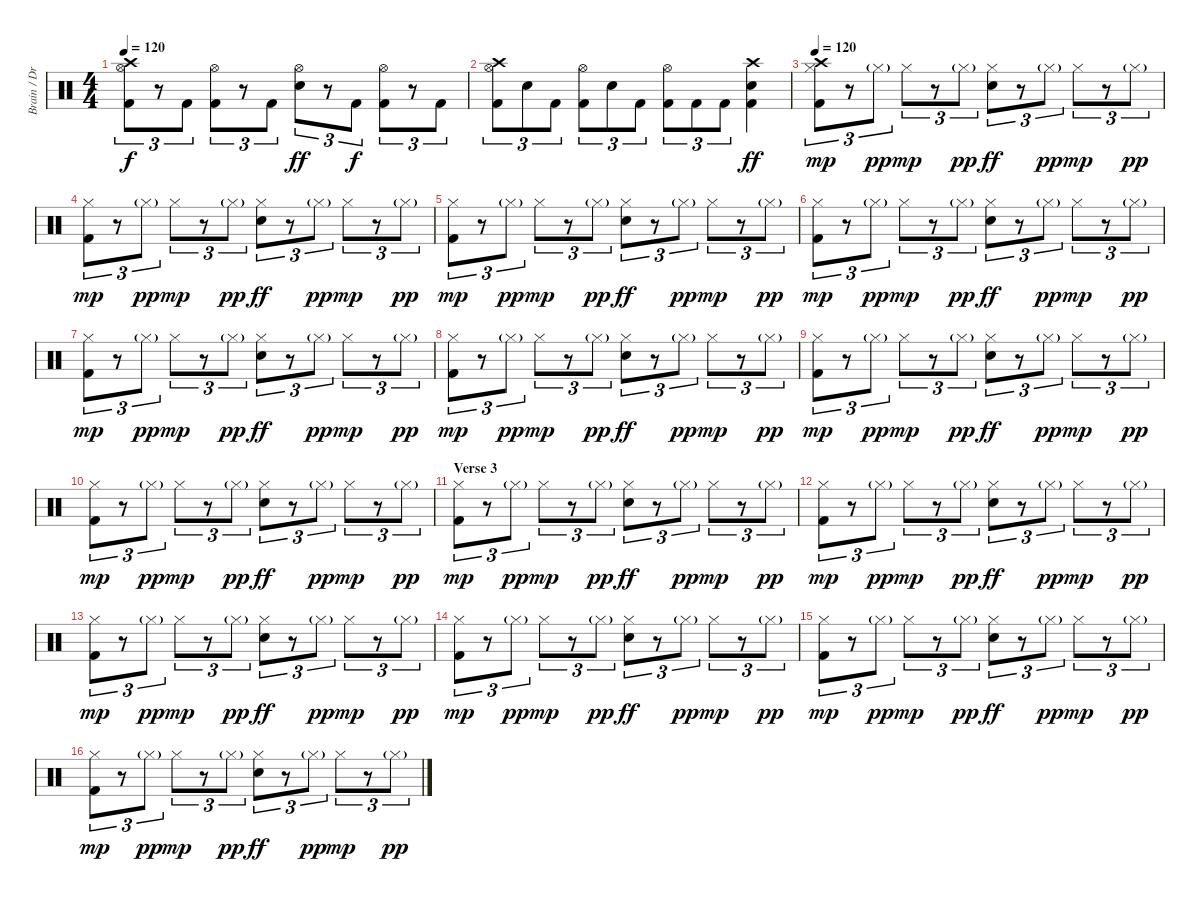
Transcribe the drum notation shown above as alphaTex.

\track ("Brain / Drums" "Brain / Dr") {instrument percussion}
\staff {score}
\articulation defaults
\ts (4 4)
\tempo 120
\clef neutral
\ks c
("Crash high (hit)" "Hi-Hat (open)" "Kick (hit) 2").8{tu (3 2) dy f} r.8{tu (3 2)} "Kick (hit) 2".8{tu (3 2)} ("Hi-Hat (open)" "Kick (hit) 2").8{tu (3 2)} r.8{tu (3 2)} "Kick (hit) 2".8{tu (3 2)} ("Hi-Hat (open)" "Electric Snare (hit)").8{tu (3 2) dy ff} r.8{tu (3 2)} "Kick (hit) 2".8{tu (3 2) dy f} ("Hi-Hat (open)" "Kick (hit) 2").8{tu (3 2)} r.8{tu (3 2)} "Kick (hit) 2".8{tu (3 2)} |
("Crash high (hit)" "Hi-Hat (open)" "Kick (hit) 2").8{tu (3 2)} "Electric Snare (hit)".8{tu (3 2)} "Kick (hit) 2".8{tu (3 2)} ("Hi-Hat (open)" "Kick (hit) 2").8{tu (3 2)} "Electric Snare (hit)".8{tu (3 2)} "Kick (hit) 2".8{tu (3 2)} ("Hi-Hat (open)" "Kick (hit) 2").8{tu (3 2)} "Kick (hit) 2".8{tu (3 2)} "Kick (hit) 2".8{tu (3 2)} ("Crash high (hit)" "Electric Snare (hit)" "Kick (hit) 2").4{dy ff} |
\tempo 120
("Crash high (hit)" "Hi-Hat (closed)" "Kick (hit) 2").8{tu (3 2) dy mp} r.8{tu (3 2)} "Hi-Hat (closed)"{g}.8{tu (3 2) dy pp} "Hi-Hat (closed)".8{tu (3 2) dy mp} r.8{tu (3 2)} "Hi-Hat (closed)"{g}.8{tu (3 2) dy pp} ("Hi-Hat (closed)" "Electric Snare (hit)").8{tu (3 2) dy ff} r.8{tu (3 2)} "Hi-Hat (closed)"{g}.8{tu (3 2) dy pp} "Hi-Hat (closed)".8{tu (3 2) dy mp} r.8{tu (3 2)} "Hi-Hat (closed)"{g}.8{tu (3 2) dy pp} |
("Hi-Hat (closed)" "Kick (hit) 2").8{tu (3 2) dy mp} r.8{tu (3 2)} "Hi-Hat (closed)"{g}.8{tu (3 2) dy pp} "Hi-Hat (closed)".8{tu (3 2) dy mp} r.8{tu (3 2)} "Hi-Hat (closed)"{g}.8{tu (3 2) dy pp} ("Hi-Hat (closed)" "Electric Snare (hit)").8{tu (3 2) dy ff} r.8{tu (3 2)} "Hi-Hat (closed)"{g}.8{tu (3 2) dy pp} "Hi-Hat (closed)".8{tu (3 2) dy mp} r.8{tu (3 2)} "Hi-Hat (closed)"{g}.8{tu (3 2) dy pp} |
("Hi-Hat (closed)" "Kick (hit) 2").8{tu (3 2) dy mp} r.8{tu (3 2)} "Hi-Hat (closed)"{g}.8{tu (3 2) dy pp} "Hi-Hat (closed)".8{tu (3 2) dy mp} r.8{tu (3 2)} "Hi-Hat (closed)"{g}.8{tu (3 2) dy pp} ("Hi-Hat (closed)" "Electric Snare (hit)").8{tu (3 2) dy ff} r.8{tu (3 2)} "Hi-Hat (closed)"{g}.8{tu (3 2) dy pp} "Hi-Hat (closed)".8{tu (3 2) dy mp} r.8{tu (3 2)} "Hi-Hat (closed)"{g}.8{tu (3 2) dy pp} |
("Hi-Hat (closed)" "Kick (hit) 2").8{tu (3 2) dy mp} r.8{tu (3 2)} "Hi-Hat (closed)"{g}.8{tu (3 2) dy pp} "Hi-Hat (closed)".8{tu (3 2) dy mp} r.8{tu (3 2)} "Hi-Hat (closed)"{g}.8{tu (3 2) dy pp} ("Hi-Hat (closed)" "Electric Snare (hit)").8{tu (3 2) dy ff} r.8{tu (3 2)} "Hi-Hat (closed)"{g}.8{tu (3 2) dy pp} "Hi-Hat (closed)".8{tu (3 2) dy mp} r.8{tu (3 2)} "Hi-Hat (closed)"{g}.8{tu (3 2) dy pp} |
("Hi-Hat (closed)" "Kick (hit) 2").8{tu (3 2) dy mp} r.8{tu (3 2)} "Hi-Hat (closed)"{g}.8{tu (3 2) dy pp} "Hi-Hat (closed)".8{tu (3 2) dy mp} r.8{tu (3 2)} "Hi-Hat (closed)"{g}.8{tu (3 2) dy pp} ("Hi-Hat (closed)" "Electric Snare (hit)").8{tu (3 2) dy ff} r.8{tu (3 2)} "Hi-Hat (closed)"{g}.8{tu (3 2) dy pp} "Hi-Hat (closed)".8{tu (3 2) dy mp} r.8{tu (3 2)} "Hi-Hat (closed)"{g}.8{tu (3 2) dy pp} |
("Hi-Hat (closed)" "Kick (hit) 2").8{tu (3 2) dy mp} r.8{tu (3 2)} "Hi-Hat (closed)"{g}.8{tu (3 2) dy pp} "Hi-Hat (closed)".8{tu (3 2) dy mp} r.8{tu (3 2)} "Hi-Hat (closed)"{g}.8{tu (3 2) dy pp} ("Hi-Hat (closed)" "Electric Snare (hit)").8{tu (3 2) dy ff} r.8{tu (3 2)} "Hi-Hat (closed)"{g}.8{tu (3 2) dy pp} "Hi-Hat (closed)".8{tu (3 2) dy mp} r.8{tu (3 2)} "Hi-Hat (closed)"{g}.8{tu (3 2) dy pp} |
("Hi-Hat (closed)" "Kick (hit) 2").8{tu (3 2) dy mp} r.8{tu (3 2)} "Hi-Hat (closed)"{g}.8{tu (3 2) dy pp} "Hi-Hat (closed)".8{tu (3 2) dy mp} r.8{tu (3 2)} "Hi-Hat (closed)"{g}.8{tu (3 2) dy pp} ("Hi-Hat (closed)" "Electric Snare (hit)").8{tu (3 2) dy ff} r.8{tu (3 2)} "Hi-Hat (closed)"{g}.8{tu (3 2) dy pp} "Hi-Hat (closed)".8{tu (3 2) dy mp} r.8{tu (3 2)} "Hi-Hat (closed)"{g}.8{tu (3 2) dy pp} |
("Hi-Hat (closed)" "Kick (hit) 2").8{tu (3 2) dy mp} r.8{tu (3 2)} "Hi-Hat (closed)"{g}.8{tu (3 2) dy pp} "Hi-Hat (closed)".8{tu (3 2) dy mp} r.8{tu (3 2)} "Hi-Hat (closed)"{g}.8{tu (3 2) dy pp} ("Hi-Hat (closed)" "Electric Snare (hit)").8{tu (3 2) dy ff} r.8{tu (3 2)} "Hi-Hat (closed)"{g}.8{tu (3 2) dy pp} "Hi-Hat (closed)".8{tu (3 2) dy mp} r.8{tu (3 2)} "Hi-Hat (closed)"{g}.8{tu (3 2) dy pp} |
\section ("" "Verse 3")
("Hi-Hat (closed)" "Kick (hit) 2").8{tu (3 2) dy mp} r.8{tu (3 2)} "Hi-Hat (closed)"{g}.8{tu (3 2) dy pp} "Hi-Hat (closed)".8{tu (3 2) dy mp} r.8{tu (3 2)} "Hi-Hat (closed)"{g}.8{tu (3 2) dy pp} ("Hi-Hat (closed)" "Electric Snare (hit)").8{tu (3 2) dy ff} r.8{tu (3 2)} "Hi-Hat (closed)"{g}.8{tu (3 2) dy pp} "Hi-Hat (closed)".8{tu (3 2) dy mp} r.8{tu (3 2)} "Hi-Hat (closed)"{g}.8{tu (3 2) dy pp} |
("Hi-Hat (closed)" "Kick (hit) 2").8{tu (3 2) dy mp} r.8{tu (3 2)} "Hi-Hat (closed)"{g}.8{tu (3 2) dy pp} "Hi-Hat (closed)".8{tu (3 2) dy mp} r.8{tu (3 2)} "Hi-Hat (closed)"{g}.8{tu (3 2) dy pp} ("Hi-Hat (closed)" "Electric Snare (hit)").8{tu (3 2) dy ff} r.8{tu (3 2)} "Hi-Hat (closed)"{g}.8{tu (3 2) dy pp} "Hi-Hat (closed)".8{tu (3 2) dy mp} r.8{tu (3 2)} "Hi-Hat (closed)"{g}.8{tu (3 2) dy pp} |
("Hi-Hat (closed)" "Kick (hit) 2").8{tu (3 2) dy mp} r.8{tu (3 2)} "Hi-Hat (closed)"{g}.8{tu (3 2) dy pp} "Hi-Hat (closed)".8{tu (3 2) dy mp} r.8{tu (3 2)} "Hi-Hat (closed)"{g}.8{tu (3 2) dy pp} ("Hi-Hat (closed)" "Electric Snare (hit)").8{tu (3 2) dy ff} r.8{tu (3 2)} "Hi-Hat (closed)"{g}.8{tu (3 2) dy pp} "Hi-Hat (closed)".8{tu (3 2) dy mp} r.8{tu (3 2)} "Hi-Hat (closed)"{g}.8{tu (3 2) dy pp} |
("Hi-Hat (closed)" "Kick (hit) 2").8{tu (3 2) dy mp} r.8{tu (3 2)} "Hi-Hat (closed)"{g}.8{tu (3 2) dy pp} "Hi-Hat (closed)".8{tu (3 2) dy mp} r.8{tu (3 2)} "Hi-Hat (closed)"{g}.8{tu (3 2) dy pp} ("Hi-Hat (closed)" "Electric Snare (hit)").8{tu (3 2) dy ff} r.8{tu (3 2)} "Hi-Hat (closed)"{g}.8{tu (3 2) dy pp} "Hi-Hat (closed)".8{tu (3 2) dy mp} r.8{tu (3 2)} "Hi-Hat (closed)"{g}.8{tu (3 2) dy pp} |
("Hi-Hat (closed)" "Kick (hit) 2").8{tu (3 2) dy mp} r.8{tu (3 2)} "Hi-Hat (closed)"{g}.8{tu (3 2) dy pp} "Hi-Hat (closed)".8{tu (3 2) dy mp} r.8{tu (3 2)} "Hi-Hat (closed)"{g}.8{tu (3 2) dy pp} ("Hi-Hat (closed)" "Electric Snare (hit)").8{tu (3 2) dy ff} r.8{tu (3 2)} "Hi-Hat (closed)"{g}.8{tu (3 2) dy pp} "Hi-Hat (closed)".8{tu (3 2) dy mp} r.8{tu (3 2)} "Hi-Hat (closed)"{g}.8{tu (3 2) dy pp} |
("Hi-Hat (closed)" "Kick (hit) 2").8{tu (3 2) dy mp} r.8{tu (3 2)} "Hi-Hat (closed)"{g}.8{tu (3 2) dy pp} "Hi-Hat (closed)".8{tu (3 2) dy mp} r.8{tu (3 2)} "Hi-Hat (closed)"{g}.8{tu (3 2) dy pp} ("Hi-Hat (closed)" "Electric Snare (hit)").8{tu (3 2) dy ff} r.8{tu (3 2)} "Hi-Hat (closed)"{g}.8{tu (3 2) dy pp} "Hi-Hat (closed)".8{tu (3 2) dy mp} r.8{tu (3 2)} "Hi-Hat (closed)"{g}.8{tu (3 2) dy pp}
